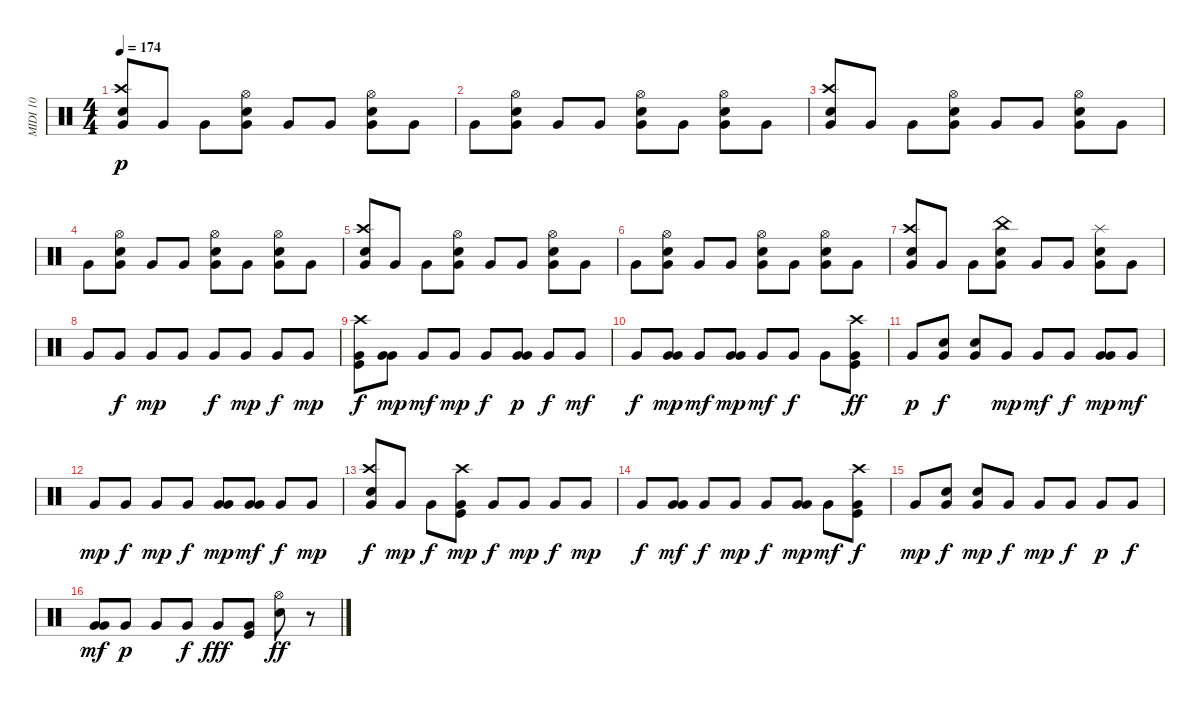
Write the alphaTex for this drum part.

\track ("MIDI 10" "MIDI 10") {instrument percussion}
\staff {score}
\articulation defaults
\ts (4 4)
\tempo 174
\clef neutral
\ks c
("Snare (hit) 2" "Crash high (hit)" "Very Low Tom (hit)").8{dy p} "Very Low Tom (hit)".8 "Very Low Tom (hit)".8 ("Snare (hit) 2" "Hi-Hat (open)" "Very Low Tom (hit)").8 "Very Low Tom (hit)".8 "Very Low Tom (hit)".8 ("Snare (hit) 2" "Hi-Hat (open)" "Very Low Tom (hit)").8 "Very Low Tom (hit)".8 |
"Very Low Tom (hit)".8 ("Snare (hit) 2" "Hi-Hat (open)" "Very Low Tom (hit)").8 "Very Low Tom (hit)".8 "Very Low Tom (hit)".8 ("Snare (hit) 2" "Hi-Hat (open)" "Very Low Tom (hit)").8 "Very Low Tom (hit)".8 ("Snare (hit) 2" "Hi-Hat (open)" "Very Low Tom (hit)").8 "Very Low Tom (hit)".8 |
("Snare (hit) 2" "Very Low Tom (hit)" "Crash high (hit)").8 "Very Low Tom (hit)".8 "Very Low Tom (hit)".8 ("Snare (hit) 2" "Hi-Hat (open)" "Very Low Tom (hit)").8 "Very Low Tom (hit)".8 "Very Low Tom (hit)".8 ("Snare (hit) 2" "Hi-Hat (open)" "Very Low Tom (hit)").8 "Very Low Tom (hit)".8 |
"Very Low Tom (hit)".8 ("Snare (hit) 2" "Hi-Hat (open)" "Very Low Tom (hit)").8 "Very Low Tom (hit)".8 "Very Low Tom (hit)".8 ("Snare (hit) 2" "Hi-Hat (open)" "Very Low Tom (hit)").8 "Very Low Tom (hit)".8 ("Snare (hit) 2" "Hi-Hat (open)" "Very Low Tom (hit)").8 "Very Low Tom (hit)".8 |
("Snare (hit) 2" "Crash high (hit)" "Very Low Tom (hit)").8 "Very Low Tom (hit)".8 "Very Low Tom (hit)".8 ("Snare (hit) 2" "Hi-Hat (open)" "Very Low Tom (hit)").8 "Very Low Tom (hit)".8 "Very Low Tom (hit)".8 ("Snare (hit) 2" "Hi-Hat (open)" "Very Low Tom (hit)").8 "Very Low Tom (hit)".8 |
"Very Low Tom (hit)".8 ("Snare (hit) 2" "Hi-Hat (open)" "Very Low Tom (hit)").8 "Very Low Tom (hit)".8 "Very Low Tom (hit)".8 ("Snare (hit) 2" "Hi-Hat (open)" "Very Low Tom (hit)").8 "Very Low Tom (hit)".8 ("Snare (hit) 2" "Hi-Hat (open)" "Very Low Tom (hit)").8 "Very Low Tom (hit)".8 |
("Snare (hit) 2" "Very Low Tom (hit)" "Crash high (hit)").8 "Very Low Tom (hit)".8 "Very Low Tom (hit)".8 ("Snare (hit) 2" "Very Low Tom (hit)" "China (hit)").8 "Very Low Tom (hit)".8 "Very Low Tom (hit)".8 ("Snare (hit) 2" "Very Low Tom (hit)" "Splash (hit)").8 "Very Low Tom (hit)".8 |
"Very Low Tom (hit)".8 "Very Low Tom (hit)".8{dy f} "Very Low Tom (hit)".8{dy mp} "Very Low Tom (hit)".8 "Very Low Tom (hit)".8{dy f} "Very Low Tom (hit)".8{dy mp} "Very Low Tom (hit)".8{dy f} "Very Low Tom (hit)".8{dy mp} |
("Very Low Tom (hit)" "Kick (hit)" "Crash high (hit)").8{dy f} ("Very Low Tom (hit)" "Very Low Tom (hit)").8{dy mp} "Very Low Tom (hit)".8{dy mf} "Very Low Tom (hit)".8{dy mp} "Very Low Tom (hit)".8{dy f} ("Very Low Tom (hit)" "Very Low Tom (hit)").8{dy p} "Very Low Tom (hit)".8{dy f} "Very Low Tom (hit)".8{dy mf} |
"Very Low Tom (hit)".8{dy f} ("Very Low Tom (hit)" "Very Low Tom (hit)").8{dy mp} "Very Low Tom (hit)".8{dy mf} ("Very Low Tom (hit)" "Very Low Tom (hit)").8{dy mp} "Very Low Tom (hit)".8{dy mf} "Very Low Tom (hit)".8{dy f} "Very Low Tom (hit)".8 ("Very Low Tom (hit)" "Kick (hit)" "Crash high (hit)").8{dy ff} |
"Very Low Tom (hit)".8{dy p} ("Very Low Tom (hit)" "Snare (hit) 2").8{dy f} ("Very Low Tom (hit)" "Snare (hit) 2").8 "Very Low Tom (hit)".8{dy mp} "Very Low Tom (hit)".8{dy mf} "Very Low Tom (hit)".8{dy f} ("Very Low Tom (hit)" "Very Low Tom (hit)").8{dy mp} "Very Low Tom (hit)".8{dy mf} |
"Very Low Tom (hit)".8{dy mp} "Very Low Tom (hit)".8{dy f} "Very Low Tom (hit)".8{dy mp} "Very Low Tom (hit)".8{dy f} ("Very Low Tom (hit)" "Very Low Tom (hit)").8{dy mp} ("Very Low Tom (hit)" "Very Low Tom (hit)").8{dy mf} "Very Low Tom (hit)".8{dy f} "Very Low Tom (hit)".8{dy mp} |
("Crash high (hit)" "Very Low Tom (hit)" "Snare (hit) 2").8{dy f} "Very Low Tom (hit)".8{dy mp} "Very Low Tom (hit)".8{dy f} ("Kick (hit)" "Crash high (hit)" "Very Low Tom (hit)").8{dy mp} "Very Low Tom (hit)".8{dy f} "Very Low Tom (hit)".8{dy mp} "Very Low Tom (hit)".8{dy f} "Very Low Tom (hit)".8{dy mp} |
"Very Low Tom (hit)".8{dy f} ("Very Low Tom (hit)" "Very Low Tom (hit)").8{dy mf} "Very Low Tom (hit)".8{dy f} "Very Low Tom (hit)".8{dy mp} "Very Low Tom (hit)".8{dy f} ("Very Low Tom (hit)" "Very Low Tom (hit)").8{dy mp} "Very Low Tom (hit)".8{dy mf} ("Crash high (hit)" "Kick (hit)" "Very Low Tom (hit)").8{dy f} |
"Very Low Tom (hit)".8{dy mp} ("Snare (hit) 2" "Very Low Tom (hit)").8{dy f} ("Snare (hit) 2" "Very Low Tom (hit)").8{dy mp} "Very Low Tom (hit)".8{dy f} "Very Low Tom (hit)".8{dy mp} "Very Low Tom (hit)".8{dy f} "Very Low Tom (hit)".8{dy p} "Very Low Tom (hit)".8{dy f} |
("Very Low Tom (hit)" "Very Low Tom (hit)").8{dy mf} "Very Low Tom (hit)".8{dy p} "Very Low Tom (hit)".8 "Very Low Tom (hit)".8{dy f} "Very Low Tom (hit)".8{dy fff} ("Kick (hit)" "Very Low Tom (hit)").8 ("Snare (hit) 2" "Hi-Hat (open)").8{dy ff} r.8
